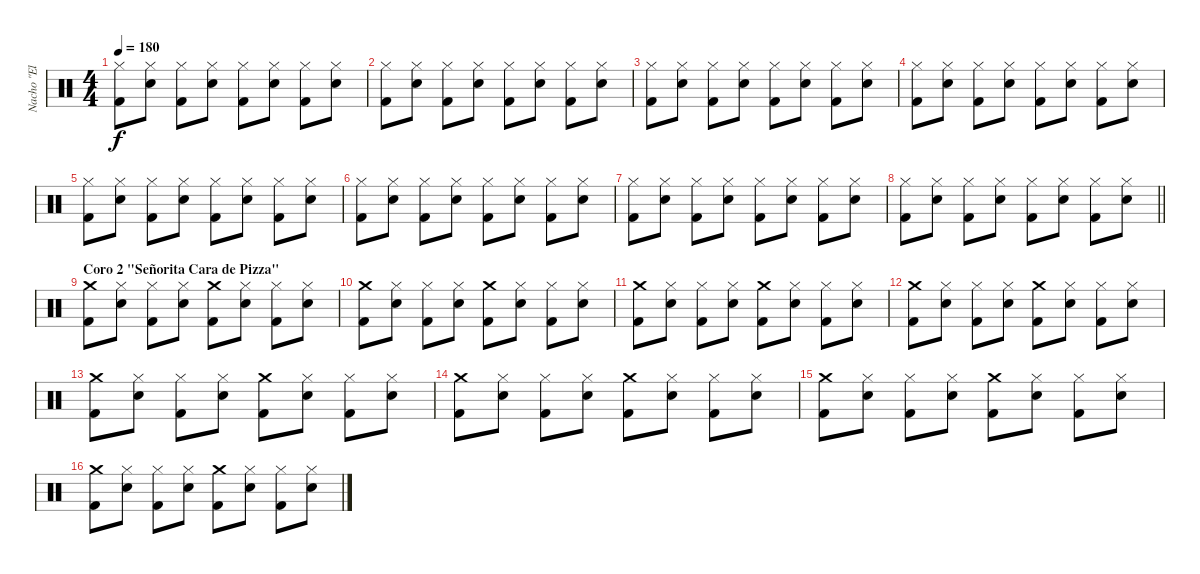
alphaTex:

\track ("Nacho \"El Implacable\"Gonzales" "Nacho \"El ") {instrument percussion}
\staff {score}
\articulation defaults
\ts (4 4)
\tempo 180
\clef neutral
\ks c
("Hi-Hat (closed)" "Kick (hit) 2").8{dy f} ("Hi-Hat (closed)" "Electric Snare (hit)").8 ("Hi-Hat (closed)" "Kick (hit) 2").8 ("Hi-Hat (closed)" "Electric Snare (hit)").8 ("Hi-Hat (closed)" "Kick (hit) 2").8 ("Hi-Hat (closed)" "Electric Snare (hit)").8 ("Hi-Hat (closed)" "Kick (hit) 2").8 ("Hi-Hat (closed)" "Electric Snare (hit)").8 |
("Hi-Hat (closed)" "Kick (hit) 2").8 ("Hi-Hat (closed)" "Electric Snare (hit)").8 ("Hi-Hat (closed)" "Kick (hit) 2").8 ("Hi-Hat (closed)" "Electric Snare (hit)").8 ("Hi-Hat (closed)" "Kick (hit) 2").8 ("Hi-Hat (closed)" "Electric Snare (hit)").8 ("Hi-Hat (closed)" "Kick (hit) 2").8 ("Hi-Hat (closed)" "Electric Snare (hit)").8 |
("Hi-Hat (closed)" "Kick (hit) 2").8 ("Hi-Hat (closed)" "Electric Snare (hit)").8 ("Hi-Hat (closed)" "Kick (hit) 2").8 ("Hi-Hat (closed)" "Electric Snare (hit)").8 ("Hi-Hat (closed)" "Kick (hit) 2").8 ("Hi-Hat (closed)" "Electric Snare (hit)").8 ("Hi-Hat (closed)" "Kick (hit) 2").8 ("Hi-Hat (closed)" "Electric Snare (hit)").8 |
("Hi-Hat (closed)" "Kick (hit) 2").8 ("Hi-Hat (closed)" "Electric Snare (hit)").8 ("Hi-Hat (closed)" "Kick (hit) 2").8 ("Hi-Hat (closed)" "Electric Snare (hit)").8 ("Hi-Hat (closed)" "Kick (hit) 2").8 ("Hi-Hat (closed)" "Electric Snare (hit)").8 ("Hi-Hat (closed)" "Kick (hit) 2").8 ("Hi-Hat (closed)" "Electric Snare (hit)").8 |
("Hi-Hat (closed)" "Kick (hit) 2").8 ("Hi-Hat (closed)" "Electric Snare (hit)").8 ("Hi-Hat (closed)" "Kick (hit) 2").8 ("Hi-Hat (closed)" "Electric Snare (hit)").8 ("Hi-Hat (closed)" "Kick (hit) 2").8 ("Hi-Hat (closed)" "Electric Snare (hit)").8 ("Hi-Hat (closed)" "Kick (hit) 2").8 ("Hi-Hat (closed)" "Electric Snare (hit)").8 |
("Hi-Hat (closed)" "Kick (hit) 2").8 ("Hi-Hat (closed)" "Electric Snare (hit)").8 ("Hi-Hat (closed)" "Kick (hit) 2").8 ("Hi-Hat (closed)" "Electric Snare (hit)").8 ("Hi-Hat (closed)" "Kick (hit) 2").8 ("Hi-Hat (closed)" "Electric Snare (hit)").8 ("Hi-Hat (closed)" "Kick (hit) 2").8 ("Hi-Hat (closed)" "Electric Snare (hit)").8 |
("Hi-Hat (closed)" "Kick (hit) 2").8 ("Hi-Hat (closed)" "Electric Snare (hit)").8 ("Hi-Hat (closed)" "Kick (hit) 2").8 ("Hi-Hat (closed)" "Electric Snare (hit)").8 ("Hi-Hat (closed)" "Kick (hit) 2").8 ("Hi-Hat (closed)" "Electric Snare (hit)").8 ("Hi-Hat (closed)" "Kick (hit) 2").8 ("Hi-Hat (closed)" "Electric Snare (hit)").8 |
\barLineRight lightlight
("Hi-Hat (closed)" "Kick (hit) 2").8 ("Hi-Hat (closed)" "Electric Snare (hit)").8 ("Hi-Hat (closed)" "Kick (hit) 2").8 ("Hi-Hat (closed)" "Electric Snare (hit)").8 ("Hi-Hat (closed)" "Kick (hit) 2").8 ("Hi-Hat (closed)" "Electric Snare (hit)").8 ("Hi-Hat (closed)" "Kick (hit) 2").8 ("Hi-Hat (closed)" "Electric Snare (hit)").8 |
\section ("" "Coro 2 \"Señorita Cara de Pizza\"")
("Crash medium (hit)" "Kick (hit) 2").8 ("Hi-Hat (closed)" "Electric Snare (hit)").8 ("Hi-Hat (closed)" "Kick (hit) 2").8 ("Hi-Hat (closed)" "Electric Snare (hit)").8 ("Crash medium (hit)" "Kick (hit) 2").8 ("Hi-Hat (closed)" "Electric Snare (hit)").8 ("Hi-Hat (closed)" "Kick (hit) 2").8 ("Hi-Hat (closed)" "Electric Snare (hit)").8 |
("Crash medium (hit)" "Kick (hit) 2").8 ("Hi-Hat (closed)" "Electric Snare (hit)").8 ("Hi-Hat (closed)" "Kick (hit) 2").8 ("Hi-Hat (closed)" "Electric Snare (hit)").8 ("Crash medium (hit)" "Kick (hit) 2").8 ("Hi-Hat (closed)" "Electric Snare (hit)").8 ("Hi-Hat (closed)" "Kick (hit) 2").8 ("Hi-Hat (closed)" "Electric Snare (hit)").8 |
("Crash medium (hit)" "Kick (hit) 2").8 ("Hi-Hat (closed)" "Electric Snare (hit)").8 ("Hi-Hat (closed)" "Kick (hit) 2").8 ("Hi-Hat (closed)" "Electric Snare (hit)").8 ("Crash medium (hit)" "Kick (hit) 2").8 ("Hi-Hat (closed)" "Electric Snare (hit)").8 ("Hi-Hat (closed)" "Kick (hit) 2").8 ("Hi-Hat (closed)" "Electric Snare (hit)").8 |
("Crash medium (hit)" "Kick (hit) 2").8 ("Hi-Hat (closed)" "Electric Snare (hit)").8 ("Hi-Hat (closed)" "Kick (hit) 2").8 ("Hi-Hat (closed)" "Electric Snare (hit)").8 ("Crash medium (hit)" "Kick (hit) 2").8 ("Hi-Hat (closed)" "Electric Snare (hit)").8 ("Hi-Hat (closed)" "Kick (hit) 2").8 ("Hi-Hat (closed)" "Electric Snare (hit)").8 |
("Crash medium (hit)" "Kick (hit) 2").8 ("Hi-Hat (closed)" "Electric Snare (hit)").8 ("Hi-Hat (closed)" "Kick (hit) 2").8 ("Hi-Hat (closed)" "Electric Snare (hit)").8 ("Crash medium (hit)" "Kick (hit) 2").8 ("Hi-Hat (closed)" "Electric Snare (hit)").8 ("Hi-Hat (closed)" "Kick (hit) 2").8 ("Hi-Hat (closed)" "Electric Snare (hit)").8 |
("Crash medium (hit)" "Kick (hit) 2").8 ("Hi-Hat (closed)" "Electric Snare (hit)").8 ("Hi-Hat (closed)" "Kick (hit) 2").8 ("Hi-Hat (closed)" "Electric Snare (hit)").8 ("Crash medium (hit)" "Kick (hit) 2").8 ("Hi-Hat (closed)" "Electric Snare (hit)").8 ("Hi-Hat (closed)" "Kick (hit) 2").8 ("Hi-Hat (closed)" "Electric Snare (hit)").8 |
("Crash medium (hit)" "Kick (hit) 2").8 ("Hi-Hat (closed)" "Electric Snare (hit)").8 ("Hi-Hat (closed)" "Kick (hit) 2").8 ("Hi-Hat (closed)" "Electric Snare (hit)").8 ("Crash medium (hit)" "Kick (hit) 2").8 ("Hi-Hat (closed)" "Electric Snare (hit)").8 ("Hi-Hat (closed)" "Kick (hit) 2").8 ("Hi-Hat (closed)" "Electric Snare (hit)").8 |
("Crash medium (hit)" "Kick (hit) 2").8 ("Hi-Hat (closed)" "Electric Snare (hit)").8 ("Hi-Hat (closed)" "Kick (hit) 2").8 ("Hi-Hat (closed)" "Electric Snare (hit)").8 ("Crash medium (hit)" "Kick (hit) 2").8 ("Hi-Hat (closed)" "Electric Snare (hit)").8 ("Hi-Hat (closed)" "Kick (hit) 2").8 ("Hi-Hat (closed)" "Electric Snare (hit)").8
